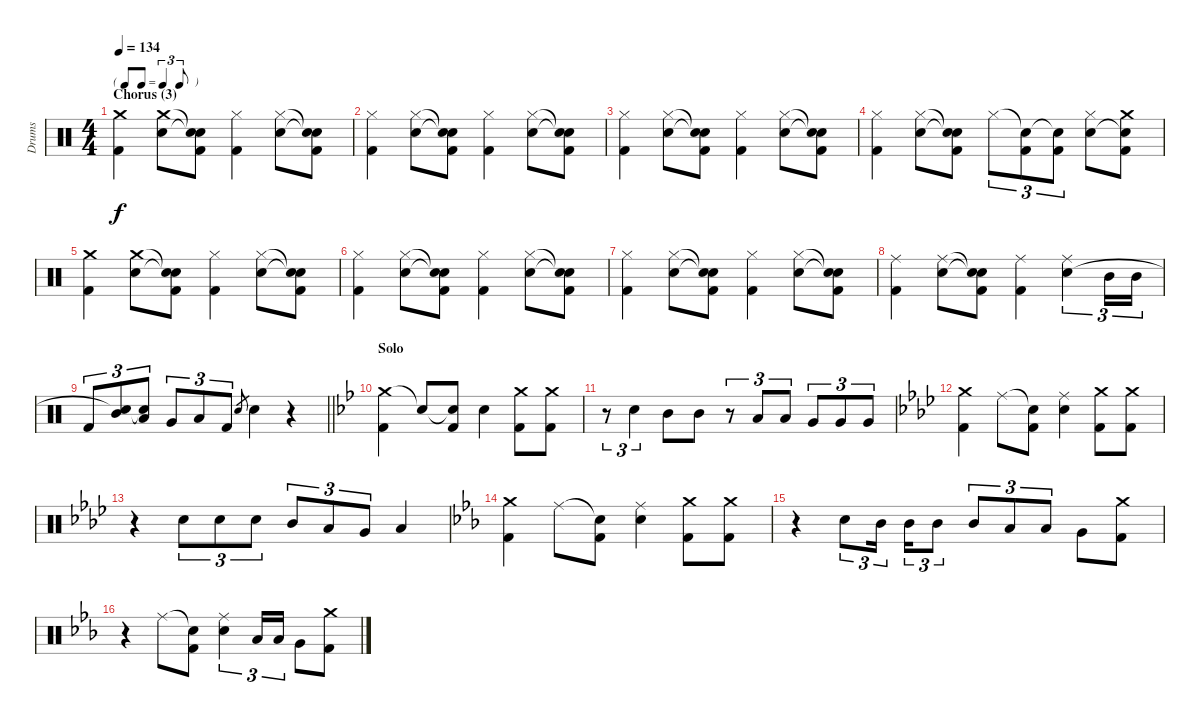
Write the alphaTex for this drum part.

\track ("Drums" "Drums") {instrument percussion}
\staff {score}
\articulation defaults
\ts (4 4)
\tf triplet8th
\section ("" "Chorus (3)")
\tempo 134
\clef neutral
\ks c
("Crash medium (hit)" "Kick (hit) 2").4{dy f} ("Crash medium (hit)" "Electric Snare (hit)").8 ("Snare (hit)"{t} "Snare (hit)"{t} "Kick (hit) 2").8 ("Hi-Hat (closed)" "Kick (hit) 2").4 ("Hi-Hat (closed)" "Electric Snare (hit)").8 ("Snare (hit)"{t} "Snare (hit)"{t} "Kick (hit) 2").8 |
("Hi-Hat (closed)" "Kick (hit) 2").4 ("Hi-Hat (closed)" "Electric Snare (hit)").8 ("Snare (hit)"{t} "Snare (hit)"{t} "Kick (hit) 2").8 ("Hi-Hat (closed)" "Kick (hit) 2").4 ("Hi-Hat (closed)" "Electric Snare (hit)").8 ("Snare (hit)"{t} "Snare (hit)"{t} "Kick (hit) 2").8 |
("Hi-Hat (closed)" "Kick (hit) 2").4 ("Hi-Hat (closed)" "Electric Snare (hit)").8 ("Snare (hit)"{t} "Snare (hit)"{t} "Kick (hit) 2").8 ("Hi-Hat (closed)" "Kick (hit) 2").4 ("Hi-Hat (closed)" "Electric Snare (hit)").8 ("Snare (hit)"{t} "Snare (hit)"{t} "Kick (hit) 2").8 |
("Hi-Hat (closed)" "Kick (hit) 2").4 ("Hi-Hat (closed)" "Electric Snare (hit)").8 ("Snare (hit)"{t} "Snare (hit)"{t} "Kick (hit) 2").8 "Hi-Hat (closed)".8{tu (3 2)} ("Snare (hit)"{t} "Kick (hit) 2").8{tu (3 2)} ("Snare (hit)"{t} "Kick (hit) 2").8{tu (3 2)} ("Hi-Hat (closed)" "Electric Snare (hit)").8 ("Crash medium (hit)" "Snare (hit)"{t} "Kick (hit) 2").8 |
("Crash medium (hit)" "Kick (hit) 2").4 ("Crash medium (hit)" "Electric Snare (hit)").8 ("Snare (hit)"{t} "Snare (hit)"{t} "Kick (hit) 2").8 ("Hi-Hat (closed)" "Kick (hit) 2").4 ("Hi-Hat (closed)" "Electric Snare (hit)").8 ("Snare (hit)"{t} "Snare (hit)"{t} "Kick (hit) 2").8 |
("Hi-Hat (closed)" "Kick (hit) 2").4 ("Hi-Hat (closed)" "Electric Snare (hit)").8 ("Snare (hit)"{t} "Snare (hit)"{t} "Kick (hit) 2").8 ("Hi-Hat (closed)" "Kick (hit) 2").4 ("Hi-Hat (closed)" "Electric Snare (hit)").8 ("Snare (hit)"{t} "Snare (hit)"{t} "Kick (hit) 2").8 |
("Hi-Hat (closed)" "Kick (hit) 2").4 ("Hi-Hat (closed)" "Electric Snare (hit)").8 ("Snare (hit)"{t} "Snare (hit)"{t} "Kick (hit) 2").8 ("Hi-Hat (closed)" "Kick (hit) 2").4 ("Hi-Hat (closed)" "Electric Snare (hit)").8 ("Snare (hit)"{t} "Snare (hit)"{t} "Kick (hit) 2").8 |
("Ride (middle)" "Kick (hit) 2").4 ("Ride (middle)" "Electric Snare (hit)").8 ("Snare (hit)"{t} "Snare (hit)"{t} "Kick (hit) 2").8 ("Ride (middle)" "Kick (hit) 2").4 ("Ride (middle)" "Electric Snare (hit)").4{tu (3 2)} "Mid Tom (hit)".16{tu (3 2)} "Mid Tom (hit)".16{tu (3 2)} |
\barLineRight lightlight "Kick (hit) 2".8{tu (3 2)}
("Mid Tom (hit)" "Snare (hit)"{t}).8{tu (3 2)} ("Low Tom (hit)" "Snare (hit)"{t}).8{tu (3 2)} "Very Low Tom (hit)".8{tu (3 2)} "Low Floor Tom (hit)".8{tu (3 2)} "Kick (hit) 2".8{tu (3 2)} "Electric Snare (hit)".8{gr} "Electric Snare (hit)".4 r.4 |
\section ("" "Solo")
\ks gminor
("Crash medium (hit)" "Kick (hit) 2").4 "Snare (hit)"{t}.8 ("Snare (hit)"{t} "Kick (hit) 2").8 "Electric Snare (hit)".4 ("Crash medium (hit)" "Kick (hit) 2").8 ("Crash medium (hit)" "Kick (hit) 2").8 |
r.8{tu (3 2)} "Electric Snare (hit)".4{tu (3 2)} "Mid Tom (hit)".8 "Mid Tom (hit)".8 r.8{tu (3 2)} "Low Tom (hit)".8{tu (3 2)} "Low Tom (hit)".8{tu (3 2)} "Very Low Tom (hit)".8{tu (3 2)} "Very Low Tom (hit)".8{tu (3 2)} "Very Low Tom (hit)".8{tu (3 2)} |
\ks fminor
("Crash medium (hit)" "Kick (hit) 2").4 "Ride (middle)".8 ("Snare (hit)"{t} "Kick (hit) 2").8 ("Ride (middle)" "Electric Snare (hit)").4 ("Crash medium (hit)" "Kick (hit) 2").8 ("Crash medium (hit)" "Kick (hit) 2").8 |
r.4 "Electric Snare (hit)".8{tu (3 2)} "Electric Snare (hit)".8{tu (3 2)} "Electric Snare (hit)".8{tu (3 2)} "Mid Tom (hit)".8{tu (3 2)} "Low Tom (hit)".8{tu (3 2)} "Very Low Tom (hit)".8{tu (3 2)} "Low Floor Tom (hit)".4 |
\ks eb
("Crash medium (hit)" "Kick (hit) 2").4 "Ride (middle)".8 ("Snare (hit)"{t} "Kick (hit) 2").8 ("Ride (middle)" "Electric Snare (hit)").4 ("Crash medium (hit)" "Kick (hit) 2").8 ("Crash medium (hit)" "Kick (hit) 2").8 |
r.4 "Electric Snare (hit)".8{tu (3 2)} "Mid Tom (hit)".16{tu (3 2)} "Mid Tom (hit)".16{tu (3 2)} "Mid Tom (hit)".8{tu (3 2)} "Mid Tom (hit)".8{tu (3 2)} "Low Tom (hit)".8{tu (3 2)} "Low Tom (hit)".8{tu (3 2)} "Very Low Tom (hit)".8 ("Crash medium (hit)" "Kick (hit) 2").8 |
r.4 "Ride (middle)".8 ("Snare (hit)"{t} "Kick (hit) 2").8 ("Ride (middle)" "Electric Snare (hit)").4{tu (3 2)} "Low Tom (hit)".16{tu (3 2)} "Low Tom (hit)".16{tu (3 2)} "Very Low Tom (hit)".8 ("Crash medium (hit)" "Kick (hit) 2").8
